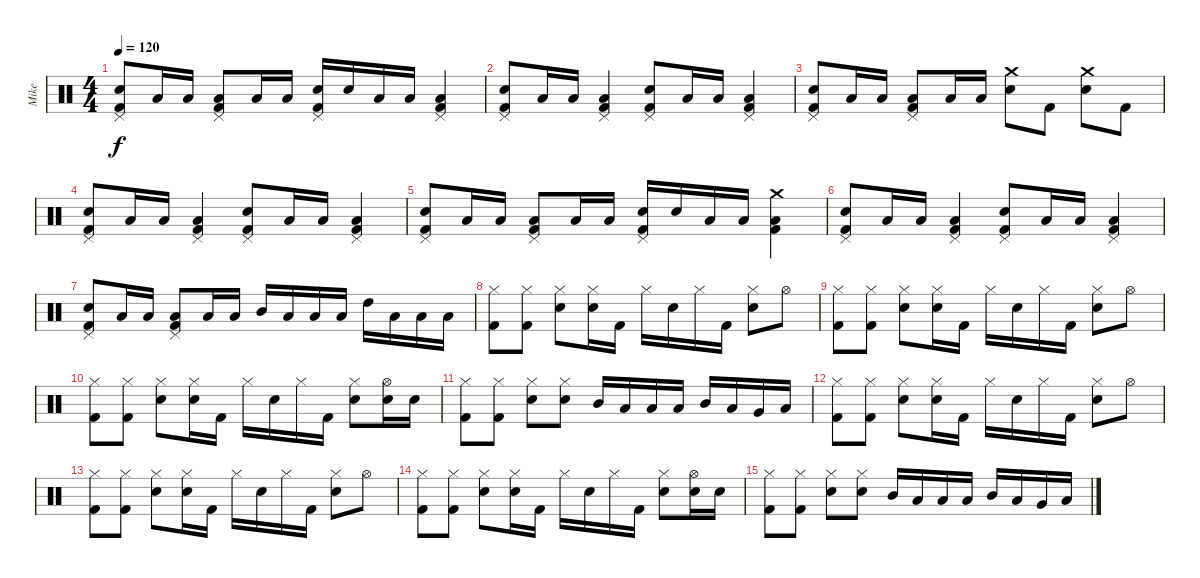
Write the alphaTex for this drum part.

\track ("Mike" "Mike") {instrument percussion}
\staff {score}
\articulation defaults
\ts (4 4)
\tempo 120
\clef neutral
\ks c
("Pedal Hi-Hat (hit)" "Electric Snare (hit)" "Kick (hit) 2").8{dy f} "Low Tom (hit)".16 "Low Tom (hit)".16 ("Pedal Hi-Hat (hit)" "Low Floor Tom (hit)" "Kick (hit) 2").8 "Low Floor Tom (hit)".16 "Low Floor Tom (hit)".16 ("Pedal Hi-Hat (hit)" "Electric Snare (hit)" "Kick (hit) 2").16 "Electric Snare (hit)".16 "Low Tom (hit)".16 "Low Tom (hit)".16 ("Pedal Hi-Hat (hit)" "Low Floor Tom (hit)" "Kick (hit) 2").4 |
("Pedal Hi-Hat (hit)" "Electric Snare (hit)" "Kick (hit) 2").8 "Low Tom (hit)".16 "Low Tom (hit)".16 ("Pedal Hi-Hat (hit)" "Low Floor Tom (hit)" "Kick (hit) 2").4 ("Pedal Hi-Hat (hit)" "Electric Snare (hit)" "Kick (hit) 2").8 "Low Tom (hit)".16 "Low Tom (hit)".16 ("Pedal Hi-Hat (hit)" "Low Floor Tom (hit)" "Kick (hit) 2").4 |
("Pedal Hi-Hat (hit)" "Electric Snare (hit)" "Kick (hit) 2").8 "Low Tom (hit)".16 "Low Tom (hit)".16 ("Pedal Hi-Hat (hit)" "Low Floor Tom (hit)" "Kick (hit) 2").8 "Low Floor Tom (hit)".16 "Low Floor Tom (hit)".16 ("Crash medium (hit)" "Electric Snare (hit)").8 "Kick (hit) 2".8 ("Crash medium (hit)" "Electric Snare (hit)").8 "Kick (hit) 2".8 |
("Pedal Hi-Hat (hit)" "Electric Snare (hit)" "Kick (hit) 2").8 "Low Tom (hit)".16 "Low Tom (hit)".16 ("Pedal Hi-Hat (hit)" "Low Floor Tom (hit)" "Kick (hit) 2").4 ("Pedal Hi-Hat (hit)" "Electric Snare (hit)" "Kick (hit) 2").8 "Low Tom (hit)".16 "Low Tom (hit)".16 ("Pedal Hi-Hat (hit)" "Low Floor Tom (hit)" "Kick (hit) 2").4 |
("Pedal Hi-Hat (hit)" "Electric Snare (hit)" "Kick (hit) 2").8 "Low Tom (hit)".16 "Low Tom (hit)".16 ("Pedal Hi-Hat (hit)" "Low Floor Tom (hit)" "Kick (hit) 2").8 "Low Floor Tom (hit)".16 "Low Floor Tom (hit)".16 ("Pedal Hi-Hat (hit)" "Electric Snare (hit)" "Kick (hit) 2").16 "Electric Snare (hit)".16 "Low Tom (hit)".16 "Low Tom (hit)".16 ("Crash medium (hit)" "Low Floor Tom (hit)" "Kick (hit) 2").4 |
("Pedal Hi-Hat (hit)" "Electric Snare (hit)" "Kick (hit) 2").8 "Low Tom (hit)".16 "Low Tom (hit)".16 ("Pedal Hi-Hat (hit)" "Low Floor Tom (hit)" "Kick (hit) 2").4 ("Pedal Hi-Hat (hit)" "Electric Snare (hit)" "Kick (hit) 2").8 "Low Tom (hit)".16 "Low Tom (hit)".16 ("Pedal Hi-Hat (hit)" "Low Floor Tom (hit)" "Kick (hit) 2").4 |
("Pedal Hi-Hat (hit)" "Electric Snare (hit)" "Kick (hit) 2").8 "Low Tom (hit)".16 "Low Tom (hit)".16 ("Pedal Hi-Hat (hit)" "Low Floor Tom (hit)" "Kick (hit) 2").8 "Low Floor Tom (hit)".16 "Low Floor Tom (hit)".16 "Mid Tom (hit)".16 "Low Floor Tom (hit)".16 "Low Floor Tom (hit)".16 "Low Floor Tom (hit)".16 "High Tom (hit)".16 "Low Floor Tom (hit)".16 "Low Floor Tom (hit)".16 "Low Floor Tom (hit)".16 |
("Hi-Hat (closed)" "Kick (hit) 2").8 ("Hi-Hat (closed)" "Kick (hit) 2").8 ("Hi-Hat (closed)" "Electric Snare (hit)").8 ("Hi-Hat (closed)" "Electric Snare (hit)").16 "Kick (hit) 2".16 "Hi-Hat (closed)".16 "Electric Snare (hit)".16 "Hi-Hat (closed)".16 "Kick (hit) 2".16 ("Hi-Hat (closed)" "Electric Snare (hit)").8 "Hi-Hat (open)".8 |
("Hi-Hat (closed)" "Kick (hit) 2").8 ("Hi-Hat (closed)" "Kick (hit) 2").8 ("Hi-Hat (closed)" "Electric Snare (hit)").8 ("Hi-Hat (closed)" "Electric Snare (hit)").16 "Kick (hit) 2".16 "Hi-Hat (closed)".16 "Electric Snare (hit)".16 "Hi-Hat (closed)".16 "Kick (hit) 2".16 ("Hi-Hat (closed)" "Electric Snare (hit)").8 "Hi-Hat (open)".8 |
("Hi-Hat (closed)" "Kick (hit) 2").8 ("Hi-Hat (closed)" "Kick (hit) 2").8 ("Hi-Hat (closed)" "Electric Snare (hit)").8 ("Hi-Hat (closed)" "Electric Snare (hit)").16 "Kick (hit) 2".16 "Hi-Hat (closed)".16 "Electric Snare (hit)".16 "Hi-Hat (closed)".16 "Kick (hit) 2".16 ("Hi-Hat (closed)" "Electric Snare (hit)").8 ("Hi-Hat (open)" "Electric Snare (hit)").16 "Electric Snare (hit)".16 |
("Hi-Hat (closed)" "Kick (hit) 2").8 ("Hi-Hat (closed)" "Kick (hit) 2").8 ("Hi-Hat (closed)" "Electric Snare (hit)").8 ("Hi-Hat (closed)" "Electric Snare (hit)").8 "Mid Tom (hit)".16 "Low Tom (hit)".16 "Low Tom (hit)".16 "Low Floor Tom (hit)".16 "Mid Tom (hit)".16 "Low Tom (hit)".16 "Very Low Tom (hit)".16 "Low Floor Tom (hit)".16 |
("Hi-Hat (closed)" "Kick (hit) 2").8 ("Hi-Hat (closed)" "Kick (hit) 2").8 ("Hi-Hat (closed)" "Electric Snare (hit)").8 ("Hi-Hat (closed)" "Electric Snare (hit)").16 "Kick (hit) 2".16 "Hi-Hat (closed)".16 "Electric Snare (hit)".16 "Hi-Hat (closed)".16 "Kick (hit) 2".16 ("Hi-Hat (closed)" "Electric Snare (hit)").8 "Hi-Hat (open)".8 |
("Hi-Hat (closed)" "Kick (hit) 2").8 ("Hi-Hat (closed)" "Kick (hit) 2").8 ("Hi-Hat (closed)" "Electric Snare (hit)").8 ("Hi-Hat (closed)" "Electric Snare (hit)").16 "Kick (hit) 2".16 "Hi-Hat (closed)".16 "Electric Snare (hit)".16 "Hi-Hat (closed)".16 "Kick (hit) 2".16 ("Hi-Hat (closed)" "Electric Snare (hit)").8 "Hi-Hat (open)".8 |
("Hi-Hat (closed)" "Kick (hit) 2").8 ("Hi-Hat (closed)" "Kick (hit) 2").8 ("Hi-Hat (closed)" "Electric Snare (hit)").8 ("Hi-Hat (closed)" "Electric Snare (hit)").16 "Kick (hit) 2".16 "Hi-Hat (closed)".16 "Electric Snare (hit)".16 "Hi-Hat (closed)".16 "Kick (hit) 2".16 ("Hi-Hat (closed)" "Electric Snare (hit)").8 ("Hi-Hat (open)" "Electric Snare (hit)").16 "Electric Snare (hit)".16 |
("Hi-Hat (closed)" "Kick (hit) 2").8 ("Hi-Hat (closed)" "Kick (hit) 2").8 ("Hi-Hat (closed)" "Electric Snare (hit)").8 ("Hi-Hat (closed)" "Electric Snare (hit)").8 "Mid Tom (hit)".16 "Low Tom (hit)".16 "Low Tom (hit)".16 "Low Floor Tom (hit)".16 "Mid Tom (hit)".16 "Low Tom (hit)".16 "Very Low Tom (hit)".16 "Low Floor Tom (hit)".16
